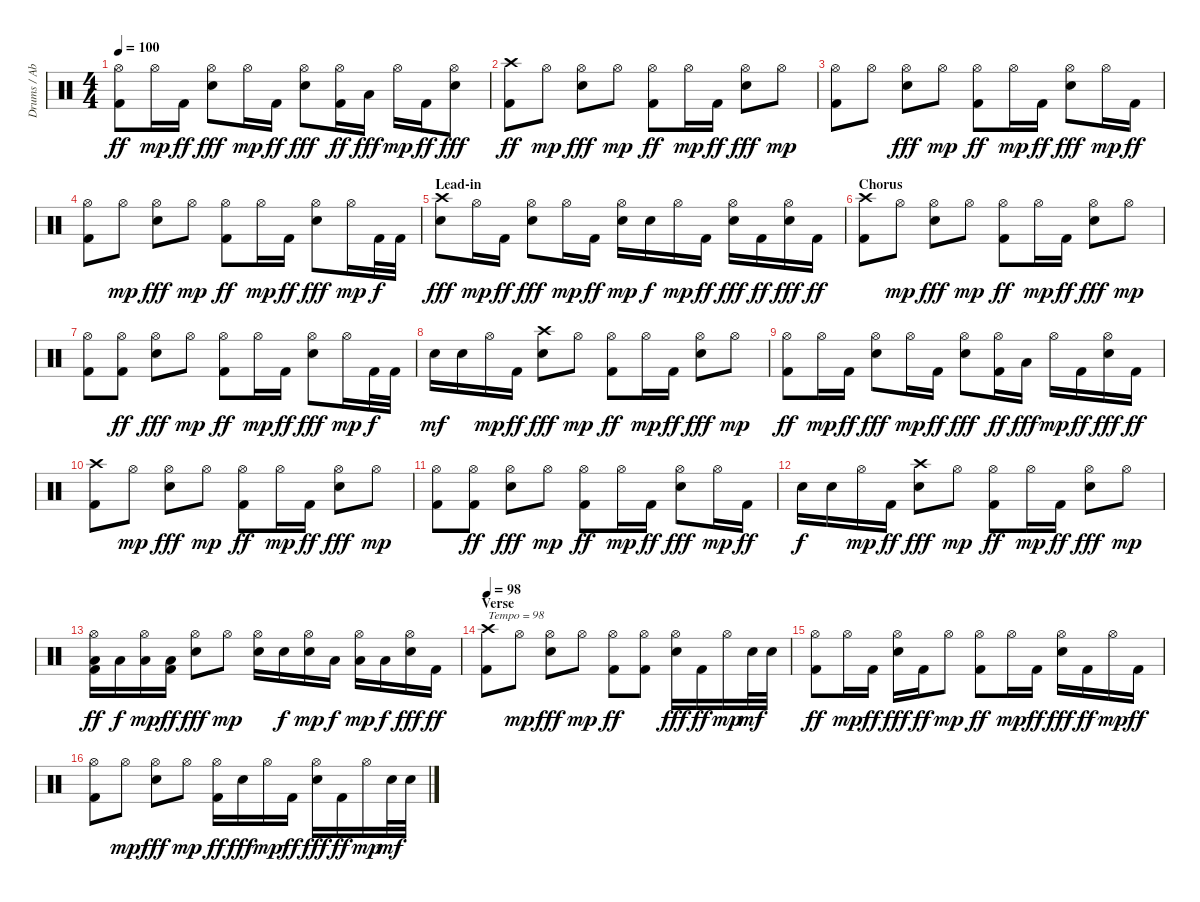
\track ("Drums / Abe Cunningham" "Drums / Ab") {instrument percussion}
\staff {score}
\articulation defaults
\ts (4 4)
\tempo 100
\clef neutral
\ks c
("Hi-Hat (open)" "Kick (hit) 2").8{dy ff} "Hi-Hat (open)".16{dy mp} "Kick (hit) 2".16{dy ff} ("Hi-Hat (open)" "Electric Snare (hit)").8{dy fff} "Hi-Hat (open)".16{dy mp} "Kick (hit) 2".16{dy ff} ("Hi-Hat (open)" "Electric Snare (hit)").8{dy fff} ("Hi-Hat (open)" "Kick (hit) 2").16{dy ff} "Low Tom (hit)".16{dy fff} "Hi-Hat (open)".16{dy mp} "Kick (hit) 2".16{dy ff} ("Hi-Hat (open)" "Electric Snare (hit)").8{dy fff} |
("Crash high (hit)" "Kick (hit) 2").8{dy ff} "Hi-Hat (open)".8{dy mp} ("Hi-Hat (open)" "Electric Snare (hit)").8{dy fff} "Hi-Hat (open)".8{dy mp} ("Hi-Hat (open)" "Kick (hit) 2").8{dy ff} "Hi-Hat (open)".16{dy mp} "Kick (hit) 2".16{dy ff} ("Hi-Hat (open)" "Electric Snare (hit)").8{dy fff} "Hi-Hat (open)".8{dy mp} |
("Hi-Hat (open)" "Kick (hit) 2").8 "Hi-Hat (open)".8 ("Hi-Hat (open)" "Electric Snare (hit)").8{dy fff} "Hi-Hat (open)".8{dy mp} ("Hi-Hat (open)" "Kick (hit) 2").8{dy ff} "Hi-Hat (open)".16{dy mp} "Kick (hit) 2".16{dy ff} ("Hi-Hat (open)" "Electric Snare (hit)").8{dy fff} "Hi-Hat (open)".16{dy mp} "Kick (hit) 2".16{dy ff} |
("Hi-Hat (open)" "Kick (hit) 2").8 "Hi-Hat (open)".8{dy mp} ("Hi-Hat (open)" "Electric Snare (hit)").8{dy fff} "Hi-Hat (open)".8{dy mp} ("Hi-Hat (open)" "Kick (hit) 2").8{dy ff} "Hi-Hat (open)".16{dy mp} "Kick (hit) 2".16{dy ff} ("Hi-Hat (open)" "Electric Snare (hit)").8{dy fff} "Hi-Hat (open)".16{dy mp} "Kick (hit) 2".32{dy f} "Kick (hit) 2".32 |
\section ("" "Lead-in")
("Crash high (hit)" "Electric Snare (hit)").8{dy fff} "Hi-Hat (open)".16{dy mp} "Kick (hit) 2".16{dy ff} ("Hi-Hat (open)" "Electric Snare (hit)").8{dy fff} "Hi-Hat (open)".16{dy mp} "Kick (hit) 2".16{dy ff} ("Hi-Hat (open)" "Electric Snare (hit)").16{dy mp} "Electric Snare (hit)".16{dy f} "Hi-Hat (open)".16{dy mp} "Kick (hit) 2".16{dy ff} ("Hi-Hat (open)" "Electric Snare (hit)").16{dy fff} "Kick (hit) 2".16{dy ff} ("Hi-Hat (open)" "Electric Snare (hit)").16{dy fff} "Kick (hit) 2".16{dy ff} |
\section ("" "Chorus")
("Crash high (hit)" "Kick (hit) 2").8 "Hi-Hat (open)".8{dy mp} ("Hi-Hat (open)" "Electric Snare (hit)").8{dy fff} "Hi-Hat (open)".8{dy mp} ("Hi-Hat (open)" "Kick (hit) 2").8{dy ff} "Hi-Hat (open)".16{dy mp} "Kick (hit) 2".16{dy ff} ("Hi-Hat (open)" "Electric Snare (hit)").8{dy fff} "Hi-Hat (open)".8{dy mp} |
("Hi-Hat (open)" "Kick (hit) 2").8 ("Hi-Hat (open)" "Kick (hit) 2").8{dy ff} ("Hi-Hat (open)" "Electric Snare (hit)").8{dy fff} "Hi-Hat (open)".8{dy mp} ("Hi-Hat (open)" "Kick (hit) 2").8{dy ff} "Hi-Hat (open)".16{dy mp} "Kick (hit) 2".16{dy ff} ("Hi-Hat (open)" "Electric Snare (hit)").8{dy fff} "Hi-Hat (open)".16{dy mp} "Kick (hit) 2".32{dy f} "Kick (hit) 2".32 |
"Electric Snare (hit)".16{dy mf} "Electric Snare (hit)".16 "Hi-Hat (open)".16{dy mp} "Kick (hit) 2".16{dy ff} ("Crash high (hit)" "Electric Snare (hit)").8{dy fff} "Hi-Hat (open)".8{dy mp} ("Hi-Hat (open)" "Kick (hit) 2").8{dy ff} "Hi-Hat (open)".16{dy mp} "Kick (hit) 2".16{dy ff} ("Hi-Hat (open)" "Electric Snare (hit)").8{dy fff} "Hi-Hat (open)".8{dy mp} |
("Hi-Hat (open)" "Kick (hit) 2").8{dy ff} "Hi-Hat (open)".16{dy mp} "Kick (hit) 2".16{dy ff} ("Hi-Hat (open)" "Electric Snare (hit)").8{dy fff} "Hi-Hat (open)".16{dy mp} "Kick (hit) 2".16{dy ff} ("Hi-Hat (open)" "Electric Snare (hit)").8{dy fff} ("Hi-Hat (open)" "Kick (hit) 2").16{dy ff} "Low Tom (hit)".16{dy fff} "Hi-Hat (open)".16{dy mp} "Kick (hit) 2".16{dy ff} ("Hi-Hat (open)" "Electric Snare (hit)").16{dy fff} "Kick (hit) 2".16{dy ff} |
("Crash high (hit)" "Kick (hit) 2").8 "Hi-Hat (open)".8{dy mp} ("Hi-Hat (open)" "Electric Snare (hit)").8{dy fff} "Hi-Hat (open)".8{dy mp} ("Hi-Hat (open)" "Kick (hit) 2").8{dy ff} "Hi-Hat (open)".16{dy mp} "Kick (hit) 2".16{dy ff} ("Hi-Hat (open)" "Electric Snare (hit)").8{dy fff} "Hi-Hat (open)".8{dy mp} |
("Hi-Hat (open)" "Kick (hit) 2").8 ("Hi-Hat (open)" "Kick (hit) 2").8{dy ff} ("Hi-Hat (open)" "Electric Snare (hit)").8{dy fff} "Hi-Hat (open)".8{dy mp} ("Hi-Hat (open)" "Kick (hit) 2").8{dy ff} "Hi-Hat (open)".16{dy mp} "Kick (hit) 2".16{dy ff} ("Hi-Hat (open)" "Electric Snare (hit)").8{dy fff} "Hi-Hat (open)".16{dy mp} "Kick (hit) 2".16{dy ff} |
"Electric Snare (hit)".16{dy f} "Electric Snare (hit)".16 "Hi-Hat (open)".16{dy mp} "Kick (hit) 2".16{dy ff} ("Crash high (hit)" "Electric Snare (hit)").8{dy fff} "Hi-Hat (open)".8{dy mp} ("Hi-Hat (open)" "Kick (hit) 2").8{dy ff} "Hi-Hat (open)".16{dy mp} "Kick (hit) 2".16{dy ff} ("Hi-Hat (open)" "Electric Snare (hit)").8{dy fff} "Hi-Hat (open)".8{dy mp} |
("Hi-Hat (open)" "Low Tom (hit)" "Kick (hit) 2").16{dy ff} "Low Tom (hit)".16{dy f} ("Hi-Hat (open)" "Low Tom (hit)").16{dy mp} ("Low Tom (hit)" "Kick (hit) 2").16{dy ff} ("Hi-Hat (open)" "Electric Snare (hit)").8{dy fff} "Hi-Hat (open)".8{dy mp} ("Hi-Hat (open)" "Electric Snare (hit)").16 "Electric Snare (hit)".16{dy f} ("Hi-Hat (open)" "Electric Snare (hit)").16{dy mp} "Low Tom (hit)".16{dy f} ("Hi-Hat (open)" "Low Tom (hit)").16{dy mp} "Low Tom (hit)".16{dy f} ("Hi-Hat (open)" "Electric Snare (hit)").16{dy fff} "Kick (hit) 2".16{dy ff} |
\section ("" "Verse")
\tempo 98
("Crash high (hit)" "Kick (hit) 2").8{txt "Tempo = 98"} "Hi-Hat (open)".8{dy mp} ("Hi-Hat (open)" "Electric Snare (hit)").8{dy fff} "Hi-Hat (open)".8{dy mp} ("Hi-Hat (open)" "Kick (hit) 2").8{dy ff} ("Hi-Hat (open)" "Kick (hit) 2").8 ("Hi-Hat (open)" "Electric Snare (hit)").16{dy fff} "Kick (hit) 2".16{dy ff} "Hi-Hat (open)".16{dy mp} "Electric Snare (hit)".32{dy mf} "Electric Snare (hit)".32 |
("Hi-Hat (open)" "Kick (hit) 2").8{dy ff} "Hi-Hat (open)".16{dy mp} "Kick (hit) 2".16{dy ff} ("Hi-Hat (open)" "Electric Snare (hit)").16{dy fff} "Kick (hit) 2".16{dy ff} "Hi-Hat (open)".8{dy mp} ("Hi-Hat (open)" "Kick (hit) 2").8{dy ff} "Hi-Hat (open)".16{dy mp} "Kick (hit) 2".16{dy ff} ("Hi-Hat (open)" "Electric Snare (hit)").16{dy fff} "Kick (hit) 2".16{dy ff} "Hi-Hat (open)".16{dy mp} "Kick (hit) 2".16{dy ff} |
("Hi-Hat (open)" "Kick (hit) 2").8 "Hi-Hat (open)".8{dy mp} ("Hi-Hat (open)" "Electric Snare (hit)").8{dy fff} "Hi-Hat (open)".8{dy mp} ("Hi-Hat (open)" "Kick (hit) 2").16{dy ff} "Electric Snare (hit)".16{dy fff} "Hi-Hat (open)".16{dy mp} "Kick (hit) 2".16{dy ff} ("Hi-Hat (open)" "Electric Snare (hit)").16{dy fff} "Kick (hit) 2".16{dy ff} "Hi-Hat (open)".16{dy mp} "Electric Snare (hit)".32{dy mf} "Electric Snare (hit)".32
